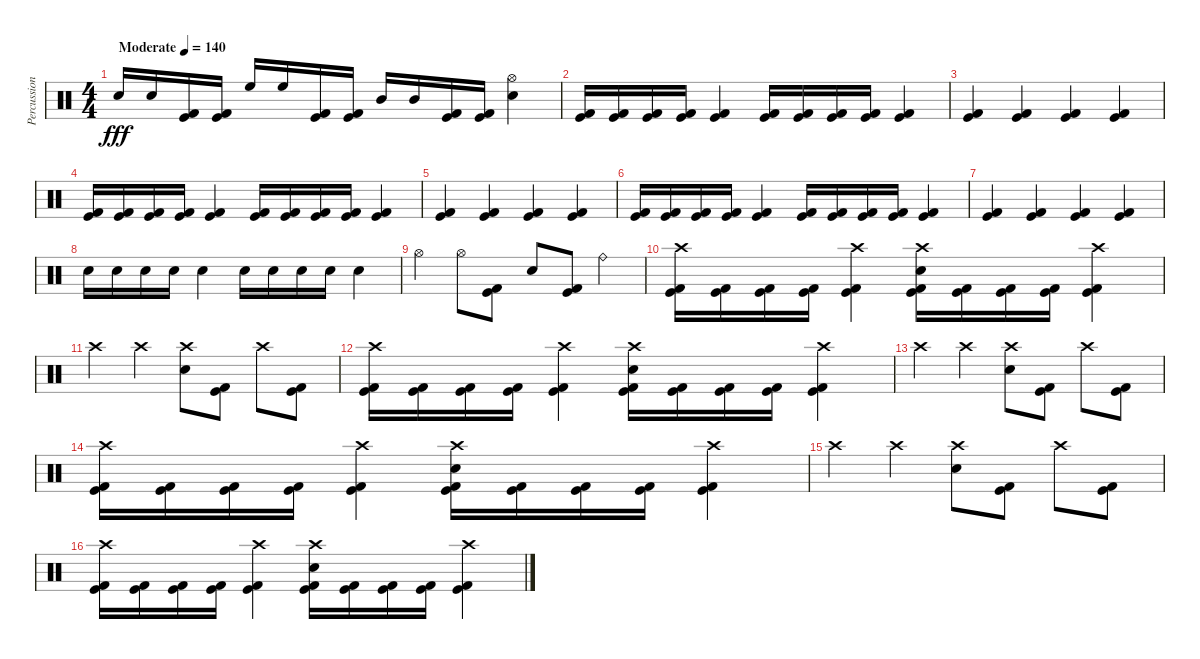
\track ("Percussion" "Percussion") {instrument percussion}
\staff {score}
\articulation defaults
\ts (4 4)
\tempo (140 "Moderate")
\clef neutral
\ks c "Electric Snare (hit)".16{dy fff} "Electric Snare (hit)".16
("Kick (hit)" "Kick (hit) 2").16 ("Kick (hit)" "Kick (hit) 2").16 "High Floor Tom (hit)".16 "High Floor Tom (hit)".16 ("Kick (hit)" "Kick (hit) 2").16 ("Kick (hit)" "Kick (hit) 2").16 "Mid Tom (hit)".16 "Mid Tom (hit)".16 ("Kick (hit)" "Kick (hit) 2").16 ("Kick (hit)" "Kick (hit) 2").16 ("Hi-Hat (open)" "Electric Snare (hit)").4 |
("Kick (hit)" "Kick (hit) 2").16 ("Kick (hit)" "Kick (hit) 2").16 ("Kick (hit)" "Kick (hit) 2").16 ("Kick (hit)" "Kick (hit) 2").16 ("Kick (hit)" "Kick (hit) 2").4 ("Kick (hit)" "Kick (hit) 2").16 ("Kick (hit)" "Kick (hit) 2").16 ("Kick (hit)" "Kick (hit) 2").16 ("Kick (hit)" "Kick (hit) 2").16 ("Kick (hit)" "Kick (hit) 2").4 |
("Kick (hit)" "Kick (hit) 2").4 ("Kick (hit)" "Kick (hit) 2").4 ("Kick (hit)" "Kick (hit) 2").4 ("Kick (hit)" "Kick (hit) 2").4 |
("Kick (hit)" "Kick (hit) 2").16 ("Kick (hit)" "Kick (hit) 2").16 ("Kick (hit)" "Kick (hit) 2").16 ("Kick (hit)" "Kick (hit) 2").16 ("Kick (hit)" "Kick (hit) 2").4 ("Kick (hit)" "Kick (hit) 2").16 ("Kick (hit)" "Kick (hit) 2").16 ("Kick (hit)" "Kick (hit) 2").16 ("Kick (hit)" "Kick (hit) 2").16 ("Kick (hit)" "Kick (hit) 2").4 |
("Kick (hit)" "Kick (hit) 2").4 ("Kick (hit)" "Kick (hit) 2").4 ("Kick (hit)" "Kick (hit) 2").4 ("Kick (hit)" "Kick (hit) 2").4 |
("Kick (hit)" "Kick (hit) 2").16 ("Kick (hit)" "Kick (hit) 2").16 ("Kick (hit)" "Kick (hit) 2").16 ("Kick (hit)" "Kick (hit) 2").16 ("Kick (hit)" "Kick (hit) 2").4 ("Kick (hit)" "Kick (hit) 2").16 ("Kick (hit)" "Kick (hit) 2").16 ("Kick (hit)" "Kick (hit) 2").16 ("Kick (hit)" "Kick (hit) 2").16 ("Kick (hit)" "Kick (hit) 2").4 |
("Kick (hit)" "Kick (hit) 2").4 ("Kick (hit)" "Kick (hit) 2").4 ("Kick (hit)" "Kick (hit) 2").4 ("Kick (hit)" "Kick (hit) 2").4 |
"Electric Snare (hit)".16 "Electric Snare (hit)".16 "Electric Snare (hit)".16 "Electric Snare (hit)".16 "Electric Snare (hit)".4 "Electric Snare (hit)".16 "Electric Snare (hit)".16 "Electric Snare (hit)".16 "Electric Snare (hit)".16 "Electric Snare (hit)".4 |
"Hi-Hat (open)".4 "Hi-Hat (open)".8 ("Kick (hit) 2" "Kick (hit)").8 "Electric Snare (hit)".8 ("Kick (hit) 2" "Kick (hit)").8 "Ride (bell)".4 |
("Crash high (hit)" "Kick (hit)" "Kick (hit) 2").16 ("Kick (hit)" "Kick (hit) 2").16 ("Kick (hit)" "Kick (hit) 2").16 ("Kick (hit)" "Kick (hit) 2").16 ("Crash high (hit)" "Kick (hit)" "Kick (hit) 2").4 ("Crash high (hit)" "Electric Snare (hit)" "Kick (hit)" "Kick (hit) 2").16 ("Kick (hit)" "Kick (hit) 2").16 ("Kick (hit)" "Kick (hit) 2").16 ("Kick (hit)" "Kick (hit) 2").16 ("Crash high (hit)" "Kick (hit)" "Kick (hit) 2").4 |
"Crash high (hit)".4 "Crash high (hit)".4 ("Crash high (hit)" "Electric Snare (hit)").8 ("Kick (hit) 2" "Kick (hit)").8 "Crash high (hit)".8 ("Kick (hit) 2" "Kick (hit)").8 |
("Crash high (hit)" "Kick (hit)" "Kick (hit) 2").16 ("Kick (hit)" "Kick (hit) 2").16 ("Kick (hit)" "Kick (hit) 2").16 ("Kick (hit)" "Kick (hit) 2").16 ("Crash high (hit)" "Kick (hit)" "Kick (hit) 2").4 ("Crash high (hit)" "Electric Snare (hit)" "Kick (hit)" "Kick (hit) 2").16 ("Kick (hit)" "Kick (hit) 2").16 ("Kick (hit)" "Kick (hit) 2").16 ("Kick (hit)" "Kick (hit) 2").16 ("Crash high (hit)" "Kick (hit)" "Kick (hit) 2").4 |
"Crash high (hit)".4 "Crash high (hit)".4 ("Crash high (hit)" "Electric Snare (hit)").8 ("Kick (hit) 2" "Kick (hit)").8 "Crash high (hit)".8 ("Kick (hit) 2" "Kick (hit)").8 |
("Crash high (hit)" "Kick (hit)" "Kick (hit) 2").16 ("Kick (hit)" "Kick (hit) 2").16 ("Kick (hit)" "Kick (hit) 2").16 ("Kick (hit)" "Kick (hit) 2").16 ("Crash high (hit)" "Kick (hit)" "Kick (hit) 2").4 ("Crash high (hit)" "Electric Snare (hit)" "Kick (hit)" "Kick (hit) 2").16 ("Kick (hit)" "Kick (hit) 2").16 ("Kick (hit)" "Kick (hit) 2").16 ("Kick (hit)" "Kick (hit) 2").16 ("Crash high (hit)" "Kick (hit)" "Kick (hit) 2").4 |
"Crash high (hit)".4 "Crash high (hit)".4 ("Crash high (hit)" "Electric Snare (hit)").8 ("Kick (hit) 2" "Kick (hit)").8 "Crash high (hit)".8 ("Kick (hit) 2" "Kick (hit)").8 |
("Crash high (hit)" "Kick (hit)" "Kick (hit) 2").16 ("Kick (hit)" "Kick (hit) 2").16 ("Kick (hit)" "Kick (hit) 2").16 ("Kick (hit)" "Kick (hit) 2").16 ("Crash high (hit)" "Kick (hit)" "Kick (hit) 2").4 ("Crash high (hit)" "Electric Snare (hit)" "Kick (hit)" "Kick (hit) 2").16 ("Kick (hit)" "Kick (hit) 2").16 ("Kick (hit)" "Kick (hit) 2").16 ("Kick (hit)" "Kick (hit) 2").16 ("Crash high (hit)" "Kick (hit)" "Kick (hit) 2").4
